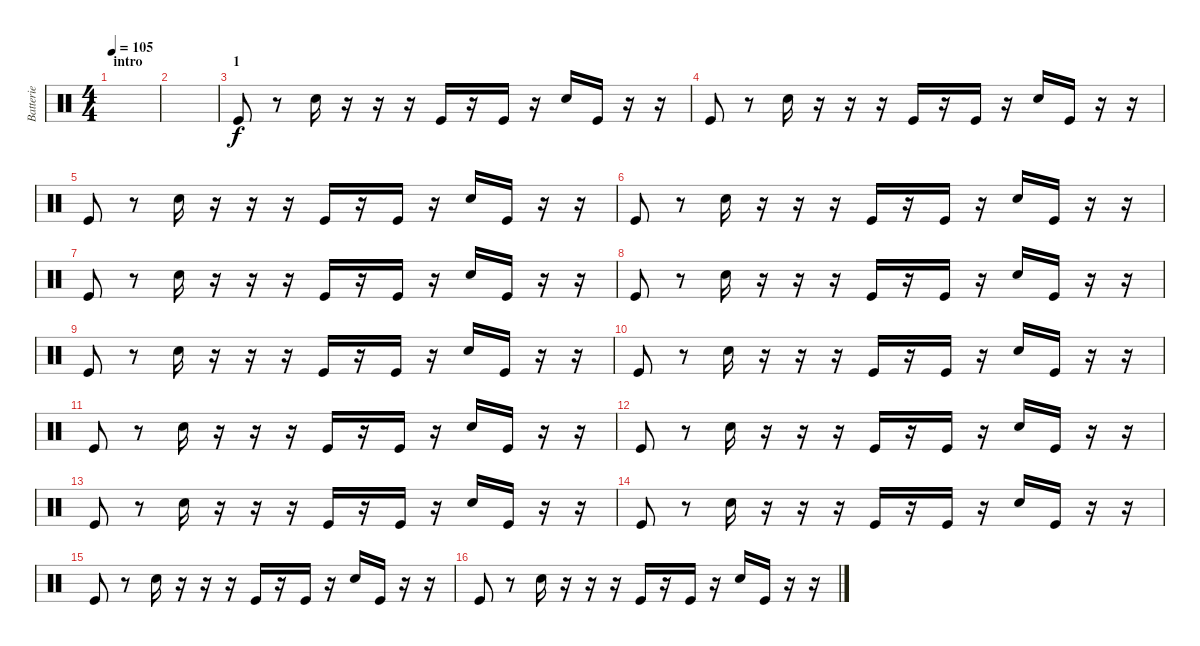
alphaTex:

\track ("Batterie" "Batterie") {instrument percussion}
\staff {score}
\articulation defaults
\ts (4 4)
\section ("" "intro")
\tempo 105
\clef neutral
\ks c
|
|
\section ("" "1")
"Kick (hit)".8 r.8 "Electric Snare (hit)".16 r.16 r.16 r.16 "Kick (hit)".16 r.16 "Kick (hit)".16 r.16 "Electric Snare (hit)".16 "Kick (hit)".16 r.16 r.16 |
"Kick (hit)".8 r.8 "Electric Snare (hit)".16 r.16 r.16 r.16 "Kick (hit)".16 r.16 "Kick (hit)".16 r.16 "Electric Snare (hit)".16 "Kick (hit)".16 r.16 r.16 |
"Kick (hit)".8 r.8 "Electric Snare (hit)".16 r.16 r.16 r.16 "Kick (hit)".16 r.16 "Kick (hit)".16 r.16 "Electric Snare (hit)".16 "Kick (hit)".16 r.16 r.16 |
"Kick (hit)".8 r.8 "Electric Snare (hit)".16 r.16 r.16 r.16 "Kick (hit)".16 r.16 "Kick (hit)".16 r.16 "Electric Snare (hit)".16 "Kick (hit)".16 r.16 r.16 |
"Kick (hit)".8 r.8 "Electric Snare (hit)".16 r.16 r.16 r.16 "Kick (hit)".16 r.16 "Kick (hit)".16 r.16 "Electric Snare (hit)".16 "Kick (hit)".16 r.16 r.16 |
"Kick (hit)".8 r.8 "Electric Snare (hit)".16 r.16 r.16 r.16 "Kick (hit)".16 r.16 "Kick (hit)".16 r.16 "Electric Snare (hit)".16 "Kick (hit)".16 r.16 r.16 |
"Kick (hit)".8 r.8 "Electric Snare (hit)".16 r.16 r.16 r.16 "Kick (hit)".16 r.16 "Kick (hit)".16 r.16 "Electric Snare (hit)".16 "Kick (hit)".16 r.16 r.16 |
"Kick (hit)".8 r.8 "Electric Snare (hit)".16 r.16 r.16 r.16 "Kick (hit)".16 r.16 "Kick (hit)".16 r.16 "Electric Snare (hit)".16 "Kick (hit)".16 r.16 r.16 |
"Kick (hit)".8 r.8 "Electric Snare (hit)".16 r.16 r.16 r.16 "Kick (hit)".16 r.16 "Kick (hit)".16 r.16 "Electric Snare (hit)".16 "Kick (hit)".16 r.16 r.16 |
"Kick (hit)".8 r.8 "Electric Snare (hit)".16 r.16 r.16 r.16 "Kick (hit)".16 r.16 "Kick (hit)".16 r.16 "Electric Snare (hit)".16 "Kick (hit)".16 r.16 r.16 |
"Kick (hit)".8 r.8 "Electric Snare (hit)".16 r.16 r.16 r.16 "Kick (hit)".16 r.16 "Kick (hit)".16 r.16 "Electric Snare (hit)".16 "Kick (hit)".16 r.16 r.16 |
"Kick (hit)".8 r.8 "Electric Snare (hit)".16 r.16 r.16 r.16 "Kick (hit)".16 r.16 "Kick (hit)".16 r.16 "Electric Snare (hit)".16 "Kick (hit)".16 r.16 r.16 |
"Kick (hit)".8 r.8 "Electric Snare (hit)".16 r.16 r.16 r.16 "Kick (hit)".16 r.16 "Kick (hit)".16 r.16 "Electric Snare (hit)".16 "Kick (hit)".16 r.16 r.16 |
"Kick (hit)".8 r.8 "Electric Snare (hit)".16 r.16 r.16 r.16 "Kick (hit)".16 r.16 "Kick (hit)".16 r.16 "Electric Snare (hit)".16 "Kick (hit)".16 r.16 r.16
